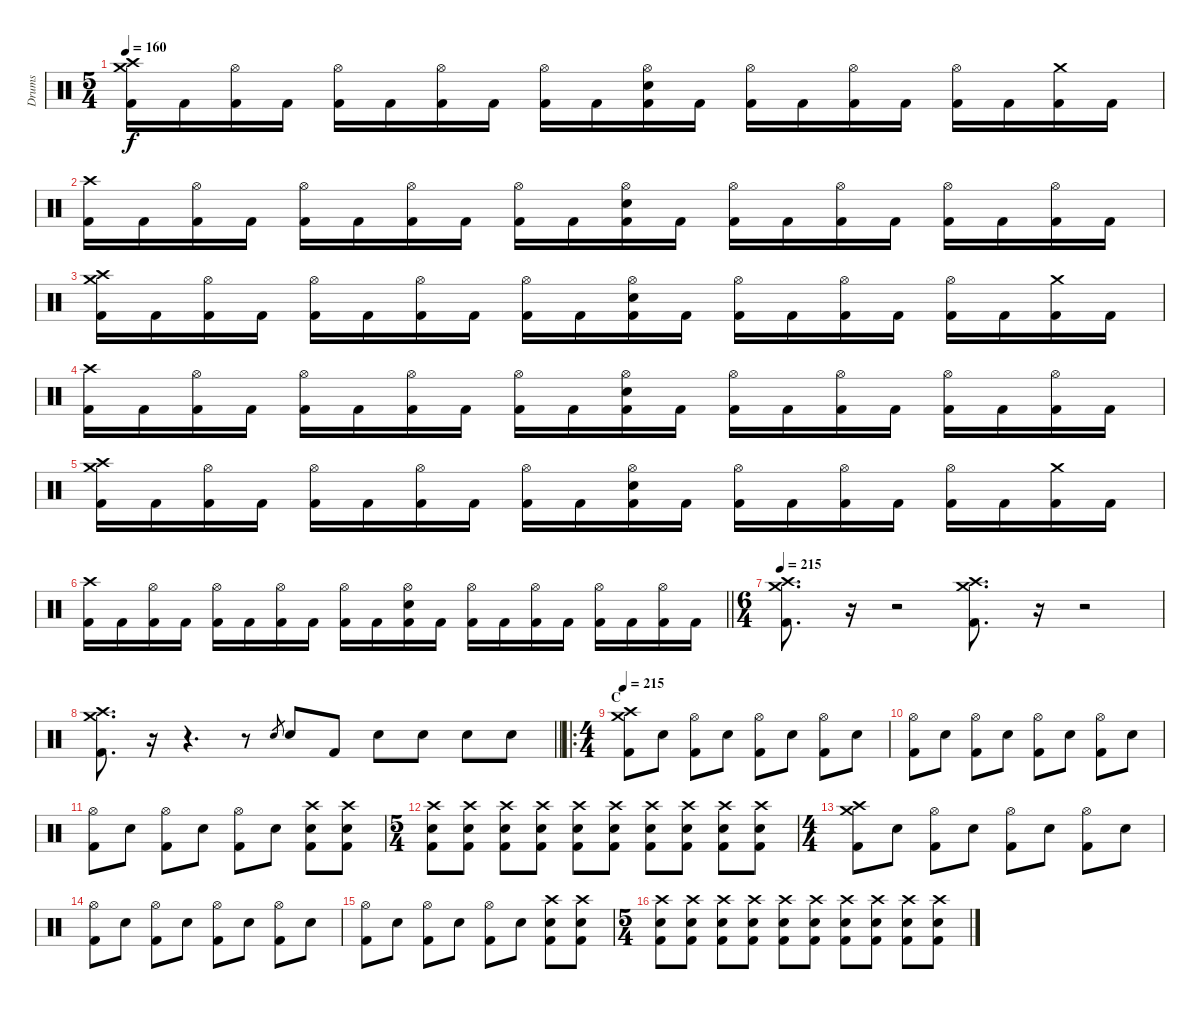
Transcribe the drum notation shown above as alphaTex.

\track ("Drums" "Drums") {instrument percussion}
\staff {score}
\articulation defaults
\ts (5 4)
\tempo 160
\clef neutral
\ks c
("Crash medium (hit)" "Crash high (hit)" "Kick (hit) 2").16{dy f} "Kick (hit) 2".16 ("Hi-Hat (open)" "Kick (hit) 2").16 "Kick (hit) 2".16 ("Hi-Hat (open)" "Kick (hit) 2").16 "Kick (hit) 2".16 ("Hi-Hat (open)" "Kick (hit) 2").16 "Kick (hit) 2".16 ("Hi-Hat (open)" "Kick (hit) 2").16 "Kick (hit) 2".16 ("Hi-Hat (open)" "Electric Snare (hit)" "Kick (hit) 2").16 "Kick (hit) 2".16 ("Hi-Hat (open)" "Kick (hit) 2").16 "Kick (hit) 2".16 ("Hi-Hat (open)" "Kick (hit) 2").16 "Kick (hit) 2".16 ("Hi-Hat (open)" "Kick (hit) 2").16 "Kick (hit) 2".16 ("Crash medium (hit)" "Kick (hit) 2").16 "Kick (hit) 2".16 |
("Crash high (hit)" "Kick (hit) 2").16 "Kick (hit) 2".16 ("Hi-Hat (open)" "Kick (hit) 2").16 "Kick (hit) 2".16 ("Hi-Hat (open)" "Kick (hit) 2").16 "Kick (hit) 2".16 ("Hi-Hat (open)" "Kick (hit) 2").16 "Kick (hit) 2".16 ("Hi-Hat (open)" "Kick (hit) 2").16 "Kick (hit) 2".16 ("Hi-Hat (open)" "Electric Snare (hit)" "Kick (hit) 2").16 "Kick (hit) 2".16 ("Hi-Hat (open)" "Kick (hit) 2").16 "Kick (hit) 2".16 ("Hi-Hat (open)" "Kick (hit) 2").16 "Kick (hit) 2".16 ("Hi-Hat (open)" "Kick (hit) 2").16 "Kick (hit) 2".16 ("Hi-Hat (open)" "Kick (hit) 2").16 "Kick (hit) 2".16 |
("Crash medium (hit)" "Crash high (hit)" "Kick (hit) 2").16 "Kick (hit) 2".16 ("Hi-Hat (open)" "Kick (hit) 2").16 "Kick (hit) 2".16 ("Hi-Hat (open)" "Kick (hit) 2").16 "Kick (hit) 2".16 ("Hi-Hat (open)" "Kick (hit) 2").16 "Kick (hit) 2".16 ("Hi-Hat (open)" "Kick (hit) 2").16 "Kick (hit) 2".16 ("Hi-Hat (open)" "Electric Snare (hit)" "Kick (hit) 2").16 "Kick (hit) 2".16 ("Hi-Hat (open)" "Kick (hit) 2").16 "Kick (hit) 2".16 ("Hi-Hat (open)" "Kick (hit) 2").16 "Kick (hit) 2".16 ("Hi-Hat (open)" "Kick (hit) 2").16 "Kick (hit) 2".16 ("Crash medium (hit)" "Kick (hit) 2").16 "Kick (hit) 2".16 |
("Crash high (hit)" "Kick (hit) 2").16 "Kick (hit) 2".16 ("Hi-Hat (open)" "Kick (hit) 2").16 "Kick (hit) 2".16 ("Hi-Hat (open)" "Kick (hit) 2").16 "Kick (hit) 2".16 ("Hi-Hat (open)" "Kick (hit) 2").16 "Kick (hit) 2".16 ("Hi-Hat (open)" "Kick (hit) 2").16 "Kick (hit) 2".16 ("Hi-Hat (open)" "Electric Snare (hit)" "Kick (hit) 2").16 "Kick (hit) 2".16 ("Hi-Hat (open)" "Kick (hit) 2").16 "Kick (hit) 2".16 ("Hi-Hat (open)" "Kick (hit) 2").16 "Kick (hit) 2".16 ("Hi-Hat (open)" "Kick (hit) 2").16 "Kick (hit) 2".16 ("Hi-Hat (open)" "Kick (hit) 2").16 "Kick (hit) 2".16 |
("Crash medium (hit)" "Crash high (hit)" "Kick (hit) 2").16 "Kick (hit) 2".16 ("Hi-Hat (open)" "Kick (hit) 2").16 "Kick (hit) 2".16 ("Hi-Hat (open)" "Kick (hit) 2").16 "Kick (hit) 2".16 ("Hi-Hat (open)" "Kick (hit) 2").16 "Kick (hit) 2".16 ("Hi-Hat (open)" "Kick (hit) 2").16 "Kick (hit) 2".16 ("Hi-Hat (open)" "Electric Snare (hit)" "Kick (hit) 2").16 "Kick (hit) 2".16 ("Hi-Hat (open)" "Kick (hit) 2").16 "Kick (hit) 2".16 ("Hi-Hat (open)" "Kick (hit) 2").16 "Kick (hit) 2".16 ("Hi-Hat (open)" "Kick (hit) 2").16 "Kick (hit) 2".16 ("Crash medium (hit)" "Kick (hit) 2").16 "Kick (hit) 2".16 |
\barLineRight lightlight
("Crash high (hit)" "Kick (hit) 2").16 "Kick (hit) 2".16 ("Hi-Hat (open)" "Kick (hit) 2").16 "Kick (hit) 2".16 ("Hi-Hat (open)" "Kick (hit) 2").16 "Kick (hit) 2".16 ("Hi-Hat (open)" "Kick (hit) 2").16 "Kick (hit) 2".16 ("Hi-Hat (open)" "Kick (hit) 2").16 "Kick (hit) 2".16 ("Hi-Hat (open)" "Electric Snare (hit)" "Kick (hit) 2").16 "Kick (hit) 2".16 ("Hi-Hat (open)" "Kick (hit) 2").16 "Kick (hit) 2".16 ("Hi-Hat (open)" "Kick (hit) 2").16 "Kick (hit) 2".16 ("Hi-Hat (open)" "Kick (hit) 2").16 "Kick (hit) 2".16 ("Hi-Hat (open)" "Kick (hit) 2").16 "Kick (hit) 2".16 |
\ts (6 4)
\section ("" "")
\tempo 215
("Crash medium (hit)" "Crash high (hit)" "Kick (hit) 2").8{d} r.16{volume 0} r.2 ("Crash medium (hit)" "Crash high (hit)" "Kick (hit) 2").8{d volume 14} r.16{volume 0} r.2 |
\barLineRight lightlight
("Crash medium (hit)" "Crash high (hit)" "Kick (hit) 2").8{d volume 14} r.16{volume 0} r.4{d} r.8{volume 14} "Electric Snare (hit)".8{gr} "Electric Snare (hit)".8 "Kick (hit) 2".8 "Electric Snare (hit)".8 "Electric Snare (hit)".8 "Electric Snare (hit)".8 "Electric Snare (hit)".8 |
\ro
\ts (4 4)
\section ("" "C")
\tempo 215
("Crash medium (hit)" "Crash high (hit)" "Kick (hit) 2").8 "Electric Snare (hit)".8 ("Hi-Hat (open)" "Kick (hit) 2").8 "Electric Snare (hit)".8 ("Hi-Hat (open)" "Kick (hit) 2").8 "Electric Snare (hit)".8 ("Hi-Hat (open)" "Kick (hit) 2").8 "Electric Snare (hit)".8 |
("Hi-Hat (open)" "Kick (hit) 2").8 "Electric Snare (hit)".8 ("Hi-Hat (open)" "Kick (hit) 2").8 "Electric Snare (hit)".8 ("Hi-Hat (open)" "Kick (hit) 2").8 "Electric Snare (hit)".8 ("Hi-Hat (open)" "Kick (hit) 2").8 "Electric Snare (hit)".8 |
("Hi-Hat (open)" "Kick (hit) 2").8 "Electric Snare (hit)".8 ("Hi-Hat (open)" "Kick (hit) 2").8 "Electric Snare (hit)".8 ("Hi-Hat (open)" "Kick (hit) 2").8 "Electric Snare (hit)".8 ("Crash high (hit)" "Electric Snare (hit)" "Kick (hit) 2").8 ("Crash high (hit)" "Electric Snare (hit)" "Kick (hit) 2").8 |
\ts (5 4)
("Crash high (hit)" "Electric Snare (hit)" "Kick (hit) 2").8 ("Crash high (hit)" "Electric Snare (hit)" "Kick (hit) 2").8 ("Crash high (hit)" "Electric Snare (hit)" "Kick (hit) 2").8 ("Crash high (hit)" "Electric Snare (hit)" "Kick (hit) 2").8 ("Crash high (hit)" "Electric Snare (hit)" "Kick (hit) 2").8 ("Crash high (hit)" "Electric Snare (hit)" "Kick (hit) 2").8 ("Crash high (hit)" "Electric Snare (hit)" "Kick (hit) 2").8 ("Crash high (hit)" "Electric Snare (hit)" "Kick (hit) 2").8 ("Crash high (hit)" "Electric Snare (hit)" "Kick (hit) 2").8 ("Crash high (hit)" "Electric Snare (hit)" "Kick (hit) 2").8 |
\ts (4 4)
("Crash medium (hit)" "Crash high (hit)" "Kick (hit) 2").8 "Electric Snare (hit)".8 ("Hi-Hat (open)" "Kick (hit) 2").8 "Electric Snare (hit)".8 ("Hi-Hat (open)" "Kick (hit) 2").8 "Electric Snare (hit)".8 ("Hi-Hat (open)" "Kick (hit) 2").8 "Electric Snare (hit)".8 |
("Hi-Hat (open)" "Kick (hit) 2").8 "Electric Snare (hit)".8 ("Hi-Hat (open)" "Kick (hit) 2").8 "Electric Snare (hit)".8 ("Hi-Hat (open)" "Kick (hit) 2").8 "Electric Snare (hit)".8 ("Hi-Hat (open)" "Kick (hit) 2").8 "Electric Snare (hit)".8 |
("Hi-Hat (open)" "Kick (hit) 2").8 "Electric Snare (hit)".8 ("Hi-Hat (open)" "Kick (hit) 2").8 "Electric Snare (hit)".8 ("Hi-Hat (open)" "Kick (hit) 2").8 "Electric Snare (hit)".8 ("Crash high (hit)" "Electric Snare (hit)" "Kick (hit) 2").8 ("Crash high (hit)" "Electric Snare (hit)" "Kick (hit) 2").8 |
\ts (5 4)
("Crash high (hit)" "Electric Snare (hit)" "Kick (hit) 2").8 ("Crash high (hit)" "Electric Snare (hit)" "Kick (hit) 2").8 ("Crash high (hit)" "Electric Snare (hit)" "Kick (hit) 2").8 ("Crash high (hit)" "Electric Snare (hit)" "Kick (hit) 2").8 ("Crash high (hit)" "Electric Snare (hit)" "Kick (hit) 2").8 ("Crash high (hit)" "Electric Snare (hit)" "Kick (hit) 2").8 ("Crash high (hit)" "Electric Snare (hit)" "Kick (hit) 2").8 ("Crash high (hit)" "Electric Snare (hit)" "Kick (hit) 2").8 ("Crash high (hit)" "Electric Snare (hit)" "Kick (hit) 2").8 ("Crash high (hit)" "Electric Snare (hit)" "Kick (hit) 2").8
